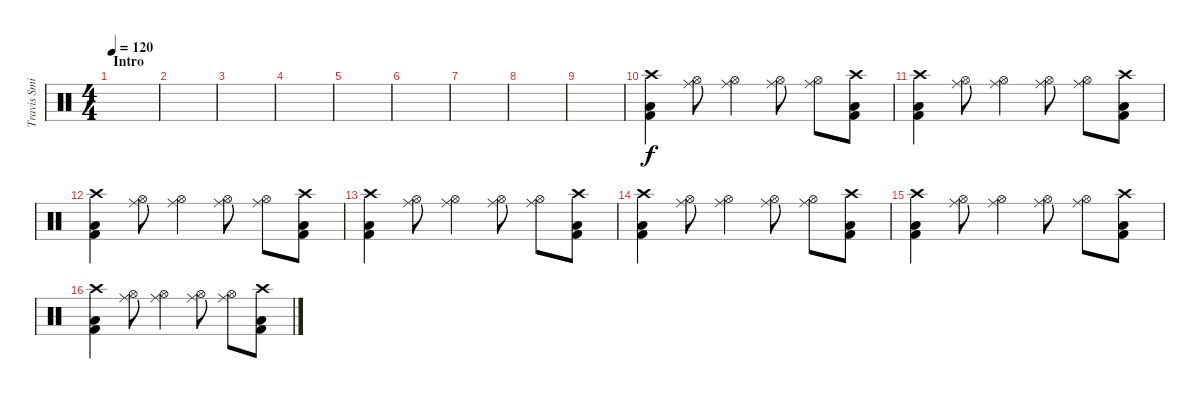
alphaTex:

\track ("Travis Smith" "Travis Smi") {instrument percussion}
\staff {score}
\articulation defaults
\ts (4 4)
\section ("" "Intro")
\tempo 120
\clef neutral
\ks c
|
|
|
|
|
|
|
|
|
("Crash high (hit)" "Low Floor Tom (hit)" "Kick (hit) 2").4 ("Ride (middle)" "Hi-Hat (open)").8 ("Ride (middle)" "Hi-Hat (open)").4 ("Ride (middle)" "Hi-Hat (open)").8 ("Ride (middle)" "Hi-Hat (open)").8 ("Crash high (hit)" "Low Floor Tom (hit)" "Kick (hit) 2").8 |
("Crash high (hit)" "Low Floor Tom (hit)" "Kick (hit) 2").4 ("Ride (middle)" "Hi-Hat (open)").8 ("Ride (middle)" "Hi-Hat (open)").4 ("Ride (middle)" "Hi-Hat (open)").8 ("Ride (middle)" "Hi-Hat (open)").8 ("Crash high (hit)" "Low Floor Tom (hit)" "Kick (hit) 2").8 |
("Crash high (hit)" "Low Floor Tom (hit)" "Kick (hit) 2").4 ("Ride (middle)" "Hi-Hat (open)").8 ("Ride (middle)" "Hi-Hat (open)").4 ("Ride (middle)" "Hi-Hat (open)").8 ("Ride (middle)" "Hi-Hat (open)").8 ("Crash high (hit)" "Low Floor Tom (hit)" "Kick (hit) 2").8 |
("Crash high (hit)" "Low Floor Tom (hit)" "Kick (hit) 2").4 ("Ride (middle)" "Hi-Hat (open)").8 ("Ride (middle)" "Hi-Hat (open)").4 ("Ride (middle)" "Hi-Hat (open)").8 ("Ride (middle)" "Hi-Hat (open)").8 ("Crash high (hit)" "Low Floor Tom (hit)" "Kick (hit) 2").8 |
("Crash high (hit)" "Low Floor Tom (hit)" "Kick (hit) 2").4 ("Ride (middle)" "Hi-Hat (open)").8 ("Ride (middle)" "Hi-Hat (open)").4 ("Ride (middle)" "Hi-Hat (open)").8 ("Ride (middle)" "Hi-Hat (open)").8 ("Crash high (hit)" "Low Floor Tom (hit)" "Kick (hit) 2").8 |
("Crash high (hit)" "Low Floor Tom (hit)" "Kick (hit) 2").4 ("Ride (middle)" "Hi-Hat (open)").8 ("Ride (middle)" "Hi-Hat (open)").4 ("Ride (middle)" "Hi-Hat (open)").8 ("Ride (middle)" "Hi-Hat (open)").8 ("Crash high (hit)" "Low Floor Tom (hit)" "Kick (hit) 2").8 |
("Crash high (hit)" "Low Floor Tom (hit)" "Kick (hit) 2").4 ("Ride (middle)" "Hi-Hat (open)").8 ("Ride (middle)" "Hi-Hat (open)").4 ("Ride (middle)" "Hi-Hat (open)").8 ("Ride (middle)" "Hi-Hat (open)").8 ("Crash high (hit)" "Low Floor Tom (hit)" "Kick (hit) 2").8
